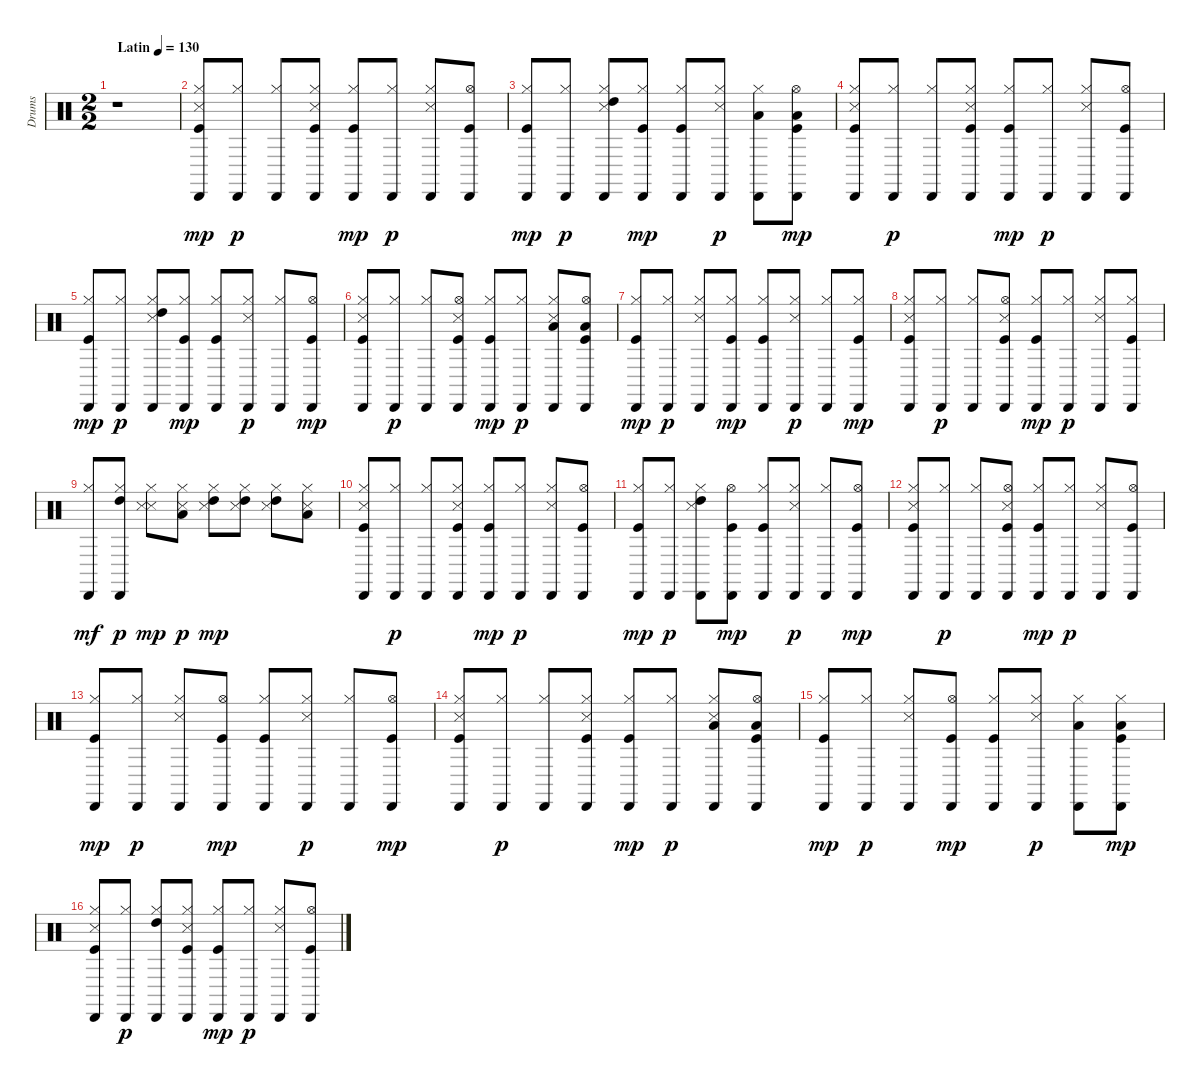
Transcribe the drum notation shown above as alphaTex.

\track ("Drums" "Drums") {instrument percussion}
\staff {score}
\articulation defaults
\ts (2 2)
\tempo (130 "Latin")
\clef neutral
\ks c
r.1{dy mp} |
("Kick (hit)" "Snare (side stick) 3" "Hi-Hat (closed)" "Cabasa (hit)").8 ("Hi-Hat (closed)" "Cabasa (hit)").8{dy p} ("Hi-Hat (closed)" "Cabasa (hit)").8 ("Kick (hit)" "Snare (side stick) 3" "Hi-Hat (closed)" "Cabasa (hit)").8 ("Kick (hit)" "Hi-Hat (closed)" "Cabasa (hit)").8{dy mp} ("Hi-Hat (closed)" "Cabasa (hit)").8{dy p} ("Snare (side stick) 3" "Hi-Hat (closed)" "Cabasa (hit)").8 ("Kick (hit)" "Hi-Hat (open)" "Cabasa (hit)").8 |
("Kick (hit)" "Hi-Hat (closed)" "Cabasa (hit)").8{dy mp} ("Hi-Hat (closed)" "Cabasa (hit)").8{dy p} ("Snare (side stick) 3" "Hi-Hat (closed)" "High Tom (hit)" "Cabasa (hit)").8 ("Kick (hit)" "Hi-Hat (closed)" "Cabasa (hit)").8{dy mp} ("Kick (hit)" "Hi-Hat (closed)" "Cabasa (hit)").8 ("Snare (side stick) 3" "Hi-Hat (closed)" "Cabasa (hit)").8{dy p} ("Hi-Hat (closed)" "Low Tom (hit)" "Cabasa (hit)").8 ("Kick (hit)" "Low Tom (hit)" "Hi-Hat (open)" "Cabasa (hit)").8{dy mp} |
("Kick (hit)" "Snare (side stick) 3" "Hi-Hat (closed)" "Cabasa (hit)").8 ("Hi-Hat (closed)" "Cabasa (hit)").8{dy p} ("Hi-Hat (closed)" "Cabasa (hit)").8 ("Kick (hit)" "Snare (side stick) 3" "Hi-Hat (closed)" "Cabasa (hit)").8 ("Kick (hit)" "Hi-Hat (closed)" "Cabasa (hit)").8{dy mp} ("Hi-Hat (closed)" "Cabasa (hit)").8{dy p} ("Snare (side stick) 3" "Hi-Hat (closed)" "Cabasa (hit)").8 ("Kick (hit)" "Hi-Hat (open)" "Cabasa (hit)").8 |
("Kick (hit)" "Hi-Hat (closed)" "Cabasa (hit)").8{dy mp} ("Hi-Hat (closed)" "Cabasa (hit)").8{dy p} ("Snare (side stick) 3" "Hi-Hat (closed)" "High Tom (hit)" "Cabasa (hit)").8 ("Kick (hit)" "Hi-Hat (closed)" "Cabasa (hit)").8{dy mp} ("Kick (hit)" "Hi-Hat (closed)" "Cabasa (hit)").8 ("Snare (side stick) 3" "Hi-Hat (closed)" "Cabasa (hit)").8{dy p} ("Hi-Hat (closed)" "Cabasa (hit)").8 ("Kick (hit)" "Hi-Hat (open)" "Cabasa (hit)").8{dy mp} |
("Kick (hit)" "Snare (side stick) 3" "Hi-Hat (closed)" "Cabasa (hit)").8 ("Hi-Hat (closed)" "Cabasa (hit)").8{dy p} ("Hi-Hat (closed)" "Cabasa (hit)").8 ("Kick (hit)" "Snare (side stick) 3" "Hi-Hat (open)" "Cabasa (hit)").8 ("Kick (hit)" "Hi-Hat (closed)" "Cabasa (hit)").8{dy mp} ("Hi-Hat (closed)" "Cabasa (hit)").8{dy p} ("Snare (side stick) 3" "Hi-Hat (closed)" "Low Tom (hit)" "Cabasa (hit)").8 ("Kick (hit)" "Low Tom (hit)" "Hi-Hat (open)" "Cabasa (hit)").8 |
("Kick (hit)" "Hi-Hat (closed)" "Cabasa (hit)").8{dy mp} ("Hi-Hat (closed)" "Cabasa (hit)").8{dy p} ("Snare (side stick) 3" "Hi-Hat (closed)" "Cabasa (hit)").8 ("Kick (hit)" "Hi-Hat (closed)" "Cabasa (hit)").8{dy mp} ("Kick (hit)" "Hi-Hat (closed)" "Cabasa (hit)").8 ("Snare (side stick) 3" "Hi-Hat (closed)" "Cabasa (hit)").8{dy p} ("Hi-Hat (closed)" "Cabasa (hit)").8 ("Kick (hit)" "Hi-Hat (closed)" "Cabasa (hit)").8{dy mp} |
("Kick (hit)" "Snare (side stick) 3" "Hi-Hat (closed)" "Cabasa (hit)").8 ("Hi-Hat (closed)" "Cabasa (hit)").8{dy p} ("Hi-Hat (closed)" "Cabasa (hit)").8 ("Kick (hit)" "Snare (side stick) 3" "Hi-Hat (open)" "Cabasa (hit)").8 ("Kick (hit)" "Hi-Hat (closed)" "Cabasa (hit)").8{dy mp} ("Hi-Hat (closed)" "Cabasa (hit)").8{dy p} ("Snare (side stick) 3" "Hi-Hat (closed)" "Cabasa (hit)").8 ("Kick (hit)" "Hi-Hat (closed)" "Cabasa (hit)").8 |
("Hi-Hat (closed)" "Cabasa (hit)").8{dy mf} ("Hi-Hat (closed)" "High Tom (hit)" "Cabasa (hit)").8{dy p} ("Snare (side stick) 3" "Snare (side stick) 3" "Hi-Hat (closed)").8{dy mp} ("Snare (side stick) 3" "Hi-Hat (closed)" "Low Tom (hit)").8{dy p} ("Snare (side stick) 3" "Hi-Hat (closed)" "High Tom (hit)").8{dy mp} ("Snare (side stick) 3" "Hi-Hat (closed)" "High Tom (hit)").8 ("Snare (side stick) 3" "Hi-Hat (closed)" "High Tom (hit)").8 ("Snare (side stick) 3" "Hi-Hat (closed)" "Low Tom (hit)").8 |
("Kick (hit)" "Snare (side stick) 3" "Hi-Hat (closed)" "Cabasa (hit)").8 ("Hi-Hat (closed)" "Cabasa (hit)").8{dy p} ("Hi-Hat (closed)" "Cabasa (hit)").8 ("Kick (hit)" "Snare (side stick) 3" "Hi-Hat (closed)" "Cabasa (hit)").8 ("Kick (hit)" "Hi-Hat (closed)" "Cabasa (hit)").8{dy mp} ("Hi-Hat (closed)" "Cabasa (hit)").8{dy p} ("Snare (side stick) 3" "Hi-Hat (closed)" "Cabasa (hit)").8 ("Kick (hit)" "Hi-Hat (open)" "Cabasa (hit)").8 |
("Kick (hit)" "Hi-Hat (closed)" "Cabasa (hit)").8{dy mp} ("Hi-Hat (closed)" "Cabasa (hit)").8{dy p} ("Snare (side stick) 3" "Hi-Hat (closed)" "High Tom (hit)" "Cabasa (hit)").8 ("Kick (hit)" "Hi-Hat (open)" "Cabasa (hit)").8{dy mp} ("Kick (hit)" "Hi-Hat (closed)" "Cabasa (hit)").8 ("Snare (side stick) 3" "Hi-Hat (closed)" "Cabasa (hit)").8{dy p} ("Hi-Hat (closed)" "Cabasa (hit)").8 ("Kick (hit)" "Hi-Hat (open)" "Cabasa (hit)").8{dy mp} |
("Kick (hit)" "Snare (side stick) 3" "Hi-Hat (closed)" "Cabasa (hit)").8 ("Hi-Hat (closed)" "Cabasa (hit)").8{dy p} ("Hi-Hat (closed)" "Cabasa (hit)").8 ("Kick (hit)" "Snare (side stick) 3" "Hi-Hat (open)" "Cabasa (hit)").8 ("Kick (hit)" "Hi-Hat (closed)" "Cabasa (hit)").8{dy mp} ("Hi-Hat (closed)" "Cabasa (hit)").8{dy p} ("Snare (side stick) 3" "Hi-Hat (closed)" "Cabasa (hit)").8 ("Kick (hit)" "Hi-Hat (open)" "Cabasa (hit)").8 |
("Kick (hit)" "Hi-Hat (closed)" "Cabasa (hit)").8{dy mp} ("Hi-Hat (closed)" "Cabasa (hit)").8{dy p} ("Snare (side stick) 3" "Hi-Hat (closed)" "Cabasa (hit)").8 ("Kick (hit)" "Hi-Hat (open)" "Cabasa (hit)").8{dy mp} ("Kick (hit)" "Hi-Hat (closed)" "Cabasa (hit)").8 ("Snare (side stick) 3" "Hi-Hat (closed)" "Cabasa (hit)").8{dy p} ("Hi-Hat (closed)" "Cabasa (hit)").8 ("Kick (hit)" "Hi-Hat (open)" "Cabasa (hit)").8{dy mp} |
("Kick (hit)" "Snare (side stick) 3" "Hi-Hat (closed)" "Cabasa (hit)").8 ("Hi-Hat (closed)" "Cabasa (hit)").8{dy p} ("Hi-Hat (closed)" "Cabasa (hit)").8 ("Kick (hit)" "Snare (side stick) 3" "Hi-Hat (closed)" "Cabasa (hit)").8 ("Kick (hit)" "Hi-Hat (closed)" "Cabasa (hit)").8{dy mp} ("Hi-Hat (closed)" "Cabasa (hit)").8{dy p} ("Snare (side stick) 3" "Hi-Hat (closed)" "Low Tom (hit)" "Cabasa (hit)").8 ("Kick (hit)" "Low Tom (hit)" "Hi-Hat (open)" "Cabasa (hit)").8 |
("Kick (hit)" "Hi-Hat (closed)" "Cabasa (hit)").8{dy mp} ("Hi-Hat (closed)" "Cabasa (hit)").8{dy p} ("Snare (side stick) 3" "Hi-Hat (closed)" "Cabasa (hit)").8 ("Kick (hit)" "Hi-Hat (open)" "Cabasa (hit)").8{dy mp} ("Kick (hit)" "Hi-Hat (closed)" "Cabasa (hit)").8 ("Snare (side stick) 3" "Hi-Hat (closed)" "Cabasa (hit)").8{dy p} ("Hi-Hat (closed)" "Low Tom (hit)" "Cabasa (hit)").8 ("Kick (hit)" "Hi-Hat (closed)" "Low Tom (hit)" "Cabasa (hit)").8{dy mp} |
("Kick (hit)" "Snare (side stick) 3" "Hi-Hat (closed)" "Cabasa (hit)").8 ("Hi-Hat (closed)" "Cabasa (hit)").8{dy p} ("Hi-Hat (closed)" "High Tom (hit)" "Cabasa (hit)").8 ("Kick (hit)" "Snare (side stick) 3" "Hi-Hat (closed)" "Cabasa (hit)").8 ("Kick (hit)" "Hi-Hat (closed)" "Cabasa (hit)").8{dy mp} ("Hi-Hat (closed)" "Cabasa (hit)").8{dy p} ("Snare (side stick) 3" "Hi-Hat (closed)" "Cabasa (hit)").8 ("Kick (hit)" "Hi-Hat (open)" "Cabasa (hit)").8
